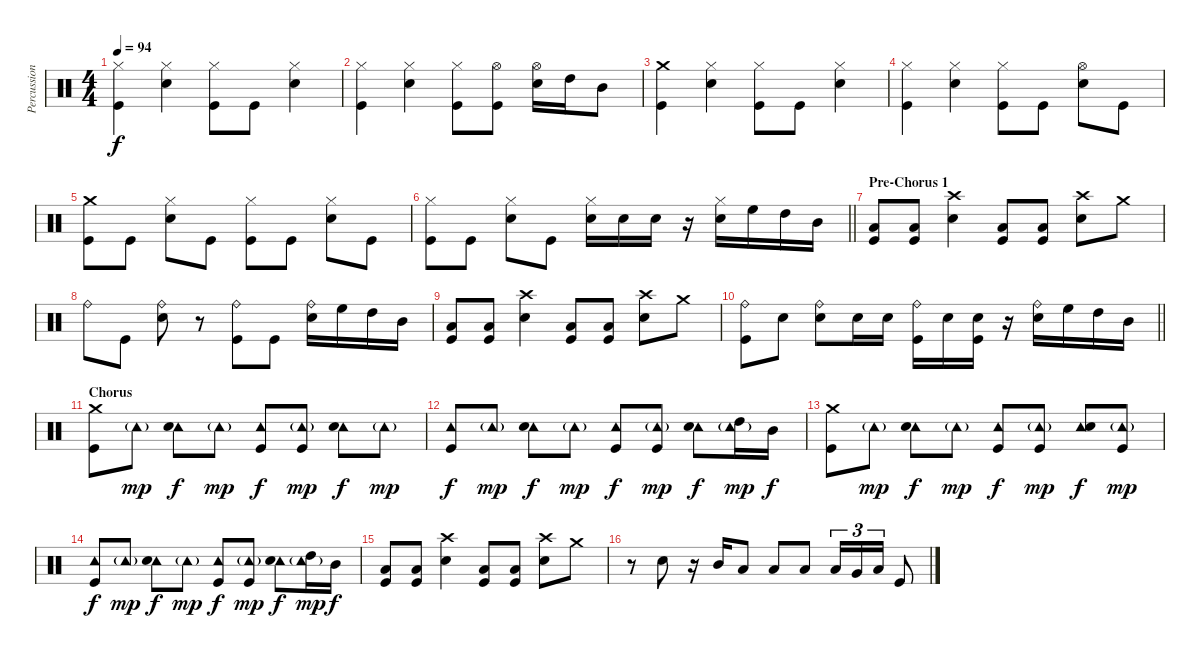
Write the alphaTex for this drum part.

\track ("Percussion" "Percussion") {instrument percussion}
\staff {score}
\articulation defaults
\ts (4 4)
\tempo 94
\clef neutral
\ks c
("Hi-Hat (closed)" "Kick (hit)").4{dy f} ("Hi-Hat (closed)" "Snare (hit) 2").4 ("Hi-Hat (closed)" "Kick (hit)").8 "Kick (hit)".8 ("Hi-Hat (closed)" "Snare (hit) 2").4 |
("Hi-Hat (closed)" "Kick (hit)").4 ("Hi-Hat (closed)" "Snare (hit) 2").4 ("Hi-Hat (closed)" "Kick (hit)").8 ("Hi-Hat (open)" "Kick (hit)").8 ("Hi-Hat (open)" "Snare (hit) 2").16 "High Tom (hit)".16 "Mid Tom (hit)".8 |
("Crash medium (hit)" "Kick (hit)").4 ("Hi-Hat (closed)" "Snare (hit) 2").4 ("Hi-Hat (closed)" "Kick (hit)").8 "Kick (hit)".8 ("Hi-Hat (closed)" "Snare (hit) 2").4 |
("Hi-Hat (closed)" "Kick (hit)").4 ("Hi-Hat (closed)" "Snare (hit) 2").4 ("Hi-Hat (closed)" "Kick (hit)").8 "Kick (hit)".8 ("Hi-Hat (open)" "Snare (hit) 2").8 "Kick (hit)".8 |
("Crash medium (hit)" "Kick (hit)").8 "Kick (hit)".8 ("Hi-Hat (closed)" "Snare (hit) 2").8 "Kick (hit)".8 ("Hi-Hat (closed)" "Kick (hit)").8 "Kick (hit)".8 ("Hi-Hat (closed)" "Snare (hit) 2").8 "Kick (hit)".8 |
\barLineRight lightlight
("Hi-Hat (closed)" "Kick (hit)").8 "Kick (hit)".8 ("Hi-Hat (closed)" "Snare (hit) 2").8 "Kick (hit)".8 ("Hi-Hat (closed)" "Snare (hit) 2").16 "Snare (hit) 2".16 "Snare (hit) 2".16 r.16 ("Hi-Hat (closed)" "Snare (hit) 2").16 "High Floor Tom (hit)".16 "High Tom (hit)".16 "Mid Tom (hit)".16 |
\section ("" "Pre-Chorus 1")
("Low Tom (hit)" "Kick (hit)").8 ("Low Tom (hit)" "Kick (hit)").8 ("Crash high (hit)" "Snare (hit) 2").4 ("Low Tom (hit)" "Kick (hit)").8 ("Low Tom (hit)" "Kick (hit)").8 ("Crash high (hit)" "Snare (hit) 2").8 "Crash medium (hit)".8 |
"Ride (bell)".8 "Kick (hit)".8 ("Ride (bell)" "Snare (hit) 2").8 r.8 ("Ride (bell)" "Kick (hit)").8 "Kick (hit)".8 ("Ride (bell)" "Snare (hit) 2").16 "High Floor Tom (hit)".16 "High Tom (hit)".16 "Mid Tom (hit)".16 |
("Low Tom (hit)" "Kick (hit)").8 ("Low Tom (hit)" "Kick (hit)").8 ("Crash high (hit)" "Snare (hit) 2").4 ("Low Tom (hit)" "Kick (hit)").8 ("Low Tom (hit)" "Kick (hit)").8 ("Crash high (hit)" "Snare (hit) 2").8 "Crash medium (hit)".8 |
\barLineRight lightlight
("Ride (bell)" "Kick (hit)").8 "Snare (hit) 2".8 ("Ride (bell)" "Snare (hit) 2").8 "Snare (hit) 2".16 "Snare (hit) 2".16 ("Ride (bell)" "Kick (hit)").16 "Snare (hit) 2".16 ("Snare (hit) 2" "Kick (hit)").16 r.16 ("Ride (bell)" "Snare (hit) 2").16 "High Floor Tom (hit)".16 "High Tom (hit)".16 "Mid Tom (hit)".16 |
\section ("" "Chorus")
("Crash medium (hit)" "Kick (hit)").8 "Tambourine (hit)"{g}.8{dy mp} ("Tambourine (hit)" "Snare (hit) 2").8{dy f} "Tambourine (hit)"{g}.8{dy mp} ("Tambourine (hit)" "Kick (hit)").8{dy f} ("Tambourine (hit)"{g} "Kick (hit)").8{dy mp} ("Tambourine (hit)" "Snare (hit) 2").8{dy f} "Tambourine (hit)"{g}.8{dy mp} |
("Tambourine (hit)" "Kick (hit)").8{dy f} "Tambourine (hit)"{g}.8{dy mp} ("Tambourine (hit)" "Snare (hit) 2").8{dy f} "Tambourine (hit)"{g}.8{dy mp} ("Tambourine (hit)" "Kick (hit)").8{dy f} ("Tambourine (hit)"{g} "Kick (hit)").8{dy mp} ("Tambourine (hit)" "Snare (hit) 2").8{dy f} ("Tambourine (hit)"{g} "High Tom (hit)").16{dy mp} "Mid Tom (hit)".16{dy f} |
("Crash medium (hit)" "Kick (hit)").8 "Tambourine (hit)"{g}.8{dy mp} ("Tambourine (hit)" "Snare (hit) 2").8{dy f} "Tambourine (hit)"{g}.8{dy mp} ("Tambourine (hit)" "Kick (hit)").8{dy f} ("Tambourine (hit)"{g} "Kick (hit)").8{dy mp} ("Tambourine (hit)" "Snare (hit) 2").8{dy f} ("Tambourine (hit)"{g} "Kick (hit)").8{dy mp} |
("Tambourine (hit)" "Kick (hit)").8{dy f} "Tambourine (hit)"{g}.8{dy mp} ("Tambourine (hit)" "Snare (hit) 2").8{dy f} "Tambourine (hit)"{g}.8{dy mp} ("Tambourine (hit)" "Kick (hit)").8{dy f} ("Tambourine (hit)"{g} "Kick (hit)").8{dy mp} ("Tambourine (hit)" "Snare (hit) 2").8{dy f} ("Tambourine (hit)"{g} "High Tom (hit)").16{dy mp} "Mid Tom (hit)".16{dy f} |
("Low Tom (hit)" "Kick (hit)").8 ("Low Tom (hit)" "Kick (hit)").8 ("Crash high (hit)" "Snare (hit) 2").4 ("Low Tom (hit)" "Kick (hit)").8 ("Low Tom (hit)" "Kick (hit)").8 ("Crash high (hit)" "Snare (hit) 2").8 "Crash medium (hit)".8 |
r.8 "Snare (hit) 2".8 r.16 "Mid Tom (hit)".16 "Low Tom (hit)".8 "Low Tom (hit)".8 "Low Tom (hit)".8 "Low Tom (hit)".16{tu (3 2)} "Very Low Tom (hit)".16{tu (3 2)} "Low Floor Tom (hit)".16{tu (3 2)} "Kick (hit)".8
